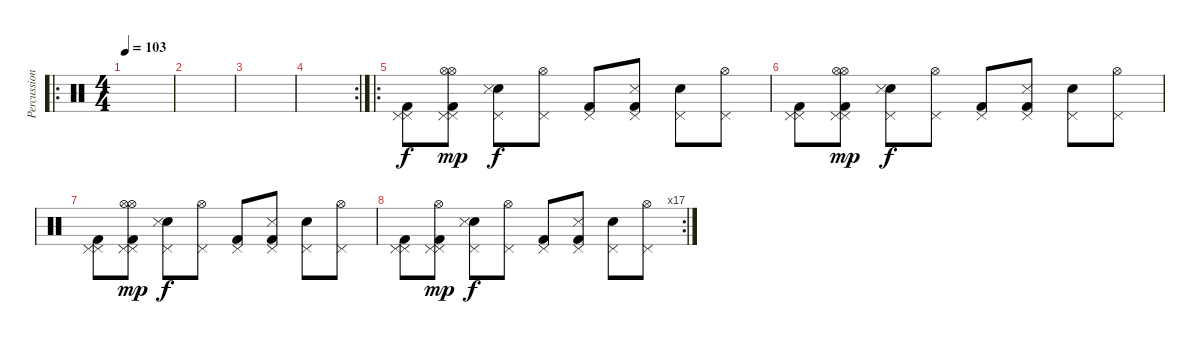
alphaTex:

\track ("Percussion" "Percussion") {instrument percussion}
\staff {score}
\articulation defaults
\ro
\ts (4 4)
\tempo 103
\clef neutral
\ks c
|
|
|
\rc 2
|
\ro
("Pedal Hi-Hat (hit)" "Pedal Hi-Hat (hit)" "Kick (hit) 2").8 ("Hi-Hat (open)" "Pedal Hi-Hat (hit)" "Hi-Hat (open)" "Pedal Hi-Hat (hit)" "Kick (hit) 2").8{dy mp} ("Pedal Hi-Hat (hit)" "Electric Snare (hit)" "Metronome (hit)").8{dy f} ("Pedal Hi-Hat (hit)" "Hi-Hat (open)").8 ("Pedal Hi-Hat (hit)" "Kick (hit) 2").8 ("Pedal Hi-Hat (hit)" "Kick (hit) 2" "Metronome (hit)").8 ("Pedal Hi-Hat (hit)" "Electric Snare (hit)").8 ("Pedal Hi-Hat (hit)" "Hi-Hat (open)").8 |
("Pedal Hi-Hat (hit)" "Pedal Hi-Hat (hit)" "Kick (hit) 2").8 ("Hi-Hat (open)" "Pedal Hi-Hat (hit)" "Hi-Hat (open)" "Pedal Hi-Hat (hit)" "Kick (hit) 2").8{dy mp} ("Pedal Hi-Hat (hit)" "Electric Snare (hit)" "Metronome (hit)").8{dy f} ("Pedal Hi-Hat (hit)" "Hi-Hat (open)").8 ("Pedal Hi-Hat (hit)" "Kick (hit) 2").8 ("Pedal Hi-Hat (hit)" "Kick (hit) 2" "Metronome (hit)").8 ("Pedal Hi-Hat (hit)" "Electric Snare (hit)").8 ("Pedal Hi-Hat (hit)" "Hi-Hat (open)").8 |
("Pedal Hi-Hat (hit)" "Pedal Hi-Hat (hit)" "Kick (hit) 2").8 ("Hi-Hat (open)" "Pedal Hi-Hat (hit)" "Hi-Hat (open)" "Pedal Hi-Hat (hit)" "Kick (hit) 2").8{dy mp} ("Pedal Hi-Hat (hit)" "Electric Snare (hit)" "Metronome (hit)").8{dy f} ("Pedal Hi-Hat (hit)" "Hi-Hat (open)").8 ("Pedal Hi-Hat (hit)" "Kick (hit) 2").8 ("Pedal Hi-Hat (hit)" "Kick (hit) 2" "Metronome (hit)").8 ("Pedal Hi-Hat (hit)" "Electric Snare (hit)").8 ("Pedal Hi-Hat (hit)" "Hi-Hat (open)").8 |
\rc 17
("Pedal Hi-Hat (hit)" "Pedal Hi-Hat (hit)" "Kick (hit) 2").8 ("Pedal Hi-Hat (hit)" "Hi-Hat (open)" "Pedal Hi-Hat (hit)" "Kick (hit) 2").8{dy mp} ("Pedal Hi-Hat (hit)" "Electric Snare (hit)" "Metronome (hit)").8{dy f} ("Pedal Hi-Hat (hit)" "Hi-Hat (open)").8 ("Pedal Hi-Hat (hit)" "Kick (hit) 2").8 ("Pedal Hi-Hat (hit)" "Kick (hit) 2" "Metronome (hit)").8 ("Pedal Hi-Hat (hit)" "Electric Snare (hit)").8 ("Pedal Hi-Hat (hit)" "Hi-Hat (open)").8
